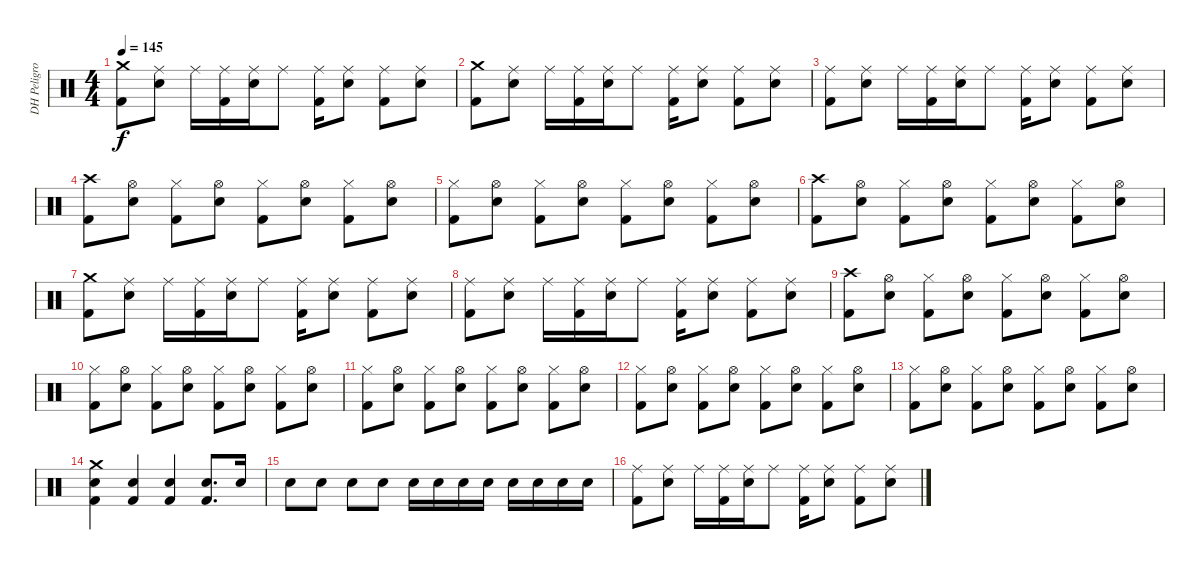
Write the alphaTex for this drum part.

\track ("DH Peligro" "DH Peligro") {instrument percussion}
\staff {score}
\articulation defaults
\ts (4 4)
\tempo 145
\clef neutral
\ks c
("Crash medium (hit)" "Kick (hit) 2").8{dy f} ("Ride (middle)" "Snare (hit) 2").8 "Ride (middle)".16 ("Ride (middle)" "Kick (hit) 2").16 ("Ride (middle)" "Snare (hit) 2").16 "Ride (middle)".8 ("Ride (middle)" "Kick (hit) 2").16 ("Ride (middle)" "Snare (hit) 2").8 ("Ride (middle)" "Kick (hit) 2").8 ("Ride (middle)" "Snare (hit) 2").8 |
("Crash medium (hit)" "Kick (hit) 2").8 ("Ride (middle)" "Snare (hit) 2").8 "Ride (middle)".16 ("Ride (middle)" "Kick (hit) 2").16 ("Ride (middle)" "Snare (hit) 2").16 "Ride (middle)".8 ("Ride (middle)" "Kick (hit) 2").16 ("Ride (middle)" "Snare (hit) 2").8 ("Ride (middle)" "Kick (hit) 2").8 ("Ride (middle)" "Snare (hit) 2").8 |
("Ride (middle)" "Kick (hit) 2").8 ("Ride (middle)" "Snare (hit) 2").8 "Ride (middle)".16 ("Ride (middle)" "Kick (hit) 2").16 ("Ride (middle)" "Snare (hit) 2").16 "Ride (middle)".8 ("Ride (middle)" "Kick (hit) 2").16 ("Ride (middle)" "Snare (hit) 2").8 ("Ride (middle)" "Kick (hit) 2").8 ("Ride (middle)" "Snare (hit) 2").8 |
("Crash high (hit)" "Kick (hit) 2").8 ("Hi-Hat (open)" "Snare (hit) 2").8 ("Hi-Hat (closed)" "Kick (hit) 2").8 ("Hi-Hat (open)" "Snare (hit) 2").8 ("Hi-Hat (closed)" "Kick (hit) 2").8 ("Hi-Hat (open)" "Snare (hit) 2").8 ("Hi-Hat (closed)" "Kick (hit) 2").8 ("Hi-Hat (open)" "Snare (hit) 2").8 |
("Hi-Hat (closed)" "Kick (hit) 2").8 ("Hi-Hat (open)" "Snare (hit) 2").8 ("Hi-Hat (closed)" "Kick (hit) 2").8 ("Hi-Hat (open)" "Snare (hit) 2").8 ("Hi-Hat (closed)" "Kick (hit) 2").8 ("Hi-Hat (open)" "Snare (hit) 2").8 ("Hi-Hat (closed)" "Kick (hit) 2").8 ("Hi-Hat (open)" "Snare (hit) 2").8 |
("Crash high (hit)" "Kick (hit) 2").8 ("Hi-Hat (open)" "Snare (hit) 2").8 ("Hi-Hat (closed)" "Kick (hit) 2").8 ("Hi-Hat (open)" "Snare (hit) 2").8 ("Hi-Hat (closed)" "Kick (hit) 2").8 ("Hi-Hat (open)" "Snare (hit) 2").8 ("Hi-Hat (closed)" "Kick (hit) 2").8 ("Hi-Hat (open)" "Snare (hit) 2").8 |
("Crash medium (hit)" "Kick (hit) 2").8 ("Ride (middle)" "Snare (hit) 2").8 "Ride (middle)".16 ("Ride (middle)" "Kick (hit) 2").16 ("Ride (middle)" "Snare (hit) 2").16 "Ride (middle)".8 ("Ride (middle)" "Kick (hit) 2").16 ("Ride (middle)" "Snare (hit) 2").8 ("Ride (middle)" "Kick (hit) 2").8 ("Ride (middle)" "Snare (hit) 2").8 |
("Ride (middle)" "Kick (hit) 2").8 ("Ride (middle)" "Snare (hit) 2").8 "Ride (middle)".16 ("Ride (middle)" "Kick (hit) 2").16 ("Ride (middle)" "Snare (hit) 2").16 "Ride (middle)".8 ("Ride (middle)" "Kick (hit) 2").16 ("Ride (middle)" "Snare (hit) 2").8 ("Ride (middle)" "Kick (hit) 2").8 ("Ride (middle)" "Snare (hit) 2").8 |
("Crash high (hit)" "Kick (hit) 2").8 ("Hi-Hat (open)" "Snare (hit) 2").8 ("Hi-Hat (closed)" "Kick (hit) 2").8 ("Hi-Hat (open)" "Snare (hit) 2").8 ("Hi-Hat (closed)" "Kick (hit) 2").8 ("Hi-Hat (open)" "Snare (hit) 2").8 ("Hi-Hat (closed)" "Kick (hit) 2").8 ("Hi-Hat (open)" "Snare (hit) 2").8 |
("Hi-Hat (closed)" "Kick (hit) 2").8 ("Hi-Hat (open)" "Snare (hit) 2").8 ("Hi-Hat (closed)" "Kick (hit) 2").8 ("Hi-Hat (open)" "Snare (hit) 2").8 ("Hi-Hat (closed)" "Kick (hit) 2").8 ("Hi-Hat (open)" "Snare (hit) 2").8 ("Hi-Hat (closed)" "Kick (hit) 2").8 ("Hi-Hat (open)" "Snare (hit) 2").8 |
("Hi-Hat (closed)" "Kick (hit) 2").8 ("Hi-Hat (open)" "Snare (hit) 2").8 ("Hi-Hat (closed)" "Kick (hit) 2").8 ("Hi-Hat (open)" "Snare (hit) 2").8 ("Hi-Hat (closed)" "Kick (hit) 2").8 ("Hi-Hat (open)" "Snare (hit) 2").8 ("Hi-Hat (closed)" "Kick (hit) 2").8 ("Hi-Hat (open)" "Snare (hit) 2").8 |
("Hi-Hat (closed)" "Kick (hit) 2").8 ("Hi-Hat (open)" "Snare (hit) 2").8 ("Hi-Hat (closed)" "Kick (hit) 2").8 ("Hi-Hat (open)" "Snare (hit) 2").8 ("Hi-Hat (closed)" "Kick (hit) 2").8 ("Hi-Hat (open)" "Snare (hit) 2").8 ("Hi-Hat (closed)" "Kick (hit) 2").8 ("Hi-Hat (open)" "Snare (hit) 2").8 |
("Hi-Hat (closed)" "Kick (hit) 2").8 ("Hi-Hat (open)" "Snare (hit) 2").8 ("Hi-Hat (closed)" "Kick (hit) 2").8 ("Hi-Hat (open)" "Snare (hit) 2").8 ("Hi-Hat (closed)" "Kick (hit) 2").8 ("Hi-Hat (open)" "Snare (hit) 2").8 ("Hi-Hat (closed)" "Kick (hit) 2").8 ("Hi-Hat (open)" "Snare (hit) 2").8 |
("Crash medium (hit)" "Snare (hit) 2" "Kick (hit) 2").4 ("Snare (hit) 2" "Kick (hit) 2").4 ("Snare (hit) 2" "Kick (hit) 2").4 ("Snare (hit) 2" "Kick (hit) 2").8{d} "Snare (hit) 2".16 |
"Snare (hit) 2".8 "Snare (hit) 2".8 "Snare (hit) 2".8 "Snare (hit) 2".8 "Snare (hit) 2".16 "Snare (hit) 2".16 "Snare (hit) 2".16 "Snare (hit) 2".16 "Snare (hit) 2".16 "Snare (hit) 2".16 "Snare (hit) 2".16 "Snare (hit) 2".16 |
("Ride (middle)" "Kick (hit) 2").8 ("Ride (middle)" "Snare (hit) 2").8 "Ride (middle)".16 ("Ride (middle)" "Kick (hit) 2").16 ("Ride (middle)" "Snare (hit) 2").16 "Ride (middle)".8 ("Ride (middle)" "Kick (hit) 2").16 ("Ride (middle)" "Snare (hit) 2").8 ("Ride (middle)" "Kick (hit) 2").8 ("Ride (middle)" "Snare (hit) 2").8
